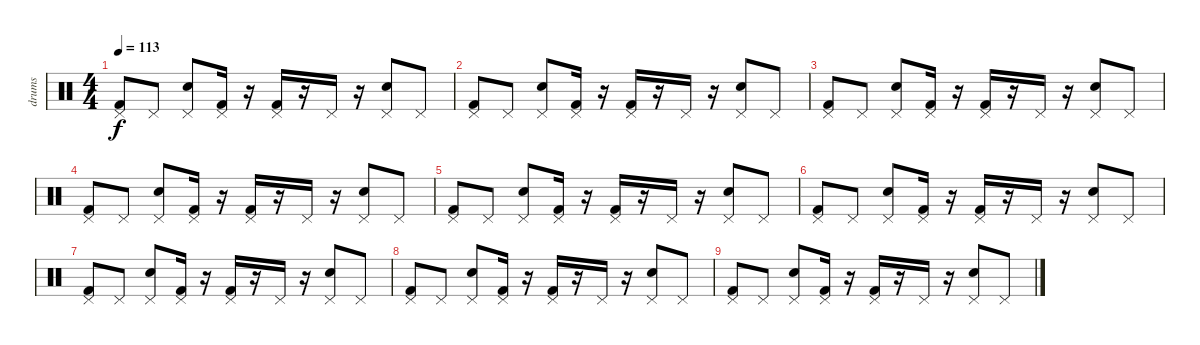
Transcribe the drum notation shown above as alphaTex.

\track ("drums" "drums") {instrument percussion}
\staff {score}
\articulation defaults
\ts (4 4)
\tempo 113
\clef neutral
\ks c
("Kick (hit) 2" "Pedal Hi-Hat (hit)").8{dy f} "Pedal Hi-Hat (hit)".8 ("Snare (hit) 2" "Pedal Hi-Hat (hit)").8 ("Kick (hit) 2" "Pedal Hi-Hat (hit)").16 r.16 ("Kick (hit) 2" "Pedal Hi-Hat (hit)").16 r.16 "Pedal Hi-Hat (hit)".16 r.16 ("Snare (hit) 2" "Pedal Hi-Hat (hit)").8 "Pedal Hi-Hat (hit)".8 |
("Kick (hit) 2" "Pedal Hi-Hat (hit)").8 "Pedal Hi-Hat (hit)".8 ("Snare (hit) 2" "Pedal Hi-Hat (hit)").8 ("Kick (hit) 2" "Pedal Hi-Hat (hit)").16 r.16 ("Kick (hit) 2" "Pedal Hi-Hat (hit)").16 r.16 "Pedal Hi-Hat (hit)".16 r.16 ("Snare (hit) 2" "Pedal Hi-Hat (hit)").8 "Pedal Hi-Hat (hit)".8 |
("Kick (hit) 2" "Pedal Hi-Hat (hit)").8 "Pedal Hi-Hat (hit)".8 ("Snare (hit) 2" "Pedal Hi-Hat (hit)").8 ("Kick (hit) 2" "Pedal Hi-Hat (hit)").16 r.16 ("Kick (hit) 2" "Pedal Hi-Hat (hit)").16 r.16 "Pedal Hi-Hat (hit)".16 r.16 ("Snare (hit) 2" "Pedal Hi-Hat (hit)").8 "Pedal Hi-Hat (hit)".8 |
("Kick (hit) 2" "Pedal Hi-Hat (hit)").8 "Pedal Hi-Hat (hit)".8 ("Snare (hit) 2" "Pedal Hi-Hat (hit)").8 ("Kick (hit) 2" "Pedal Hi-Hat (hit)").16 r.16 ("Kick (hit) 2" "Pedal Hi-Hat (hit)").16 r.16 "Pedal Hi-Hat (hit)".16 r.16 ("Snare (hit) 2" "Pedal Hi-Hat (hit)").8 "Pedal Hi-Hat (hit)".8 |
("Kick (hit) 2" "Pedal Hi-Hat (hit)").8 "Pedal Hi-Hat (hit)".8 ("Snare (hit) 2" "Pedal Hi-Hat (hit)").8 ("Kick (hit) 2" "Pedal Hi-Hat (hit)").16 r.16 ("Kick (hit) 2" "Pedal Hi-Hat (hit)").16 r.16 "Pedal Hi-Hat (hit)".16 r.16 ("Snare (hit) 2" "Pedal Hi-Hat (hit)").8 "Pedal Hi-Hat (hit)".8 |
("Kick (hit) 2" "Pedal Hi-Hat (hit)").8{volume 0} "Pedal Hi-Hat (hit)".8 ("Snare (hit) 2" "Pedal Hi-Hat (hit)").8 ("Kick (hit) 2" "Pedal Hi-Hat (hit)").16 r.16 ("Kick (hit) 2" "Pedal Hi-Hat (hit)").16 r.16 "Pedal Hi-Hat (hit)".16 r.16 ("Snare (hit) 2" "Pedal Hi-Hat (hit)").8 "Pedal Hi-Hat (hit)".8 |
("Kick (hit) 2" "Pedal Hi-Hat (hit)").8 "Pedal Hi-Hat (hit)".8 ("Snare (hit) 2" "Pedal Hi-Hat (hit)").8 ("Kick (hit) 2" "Pedal Hi-Hat (hit)").16 r.16 ("Kick (hit) 2" "Pedal Hi-Hat (hit)").16 r.16 "Pedal Hi-Hat (hit)".16 r.16 ("Snare (hit) 2" "Pedal Hi-Hat (hit)").8 "Pedal Hi-Hat (hit)".8 |
("Kick (hit) 2" "Pedal Hi-Hat (hit)").8 "Pedal Hi-Hat (hit)".8 ("Snare (hit) 2" "Pedal Hi-Hat (hit)").8 ("Kick (hit) 2" "Pedal Hi-Hat (hit)").16 r.16 ("Kick (hit) 2" "Pedal Hi-Hat (hit)").16 r.16 "Pedal Hi-Hat (hit)".16 r.16 ("Snare (hit) 2" "Pedal Hi-Hat (hit)").8 "Pedal Hi-Hat (hit)".8 |
("Kick (hit) 2" "Pedal Hi-Hat (hit)").8 "Pedal Hi-Hat (hit)".8 ("Snare (hit) 2" "Pedal Hi-Hat (hit)").8 ("Kick (hit) 2" "Pedal Hi-Hat (hit)").16 r.16 ("Kick (hit) 2" "Pedal Hi-Hat (hit)").16 r.16 "Pedal Hi-Hat (hit)".16 r.16 ("Snare (hit) 2" "Pedal Hi-Hat (hit)").8 "Pedal Hi-Hat (hit)".8
